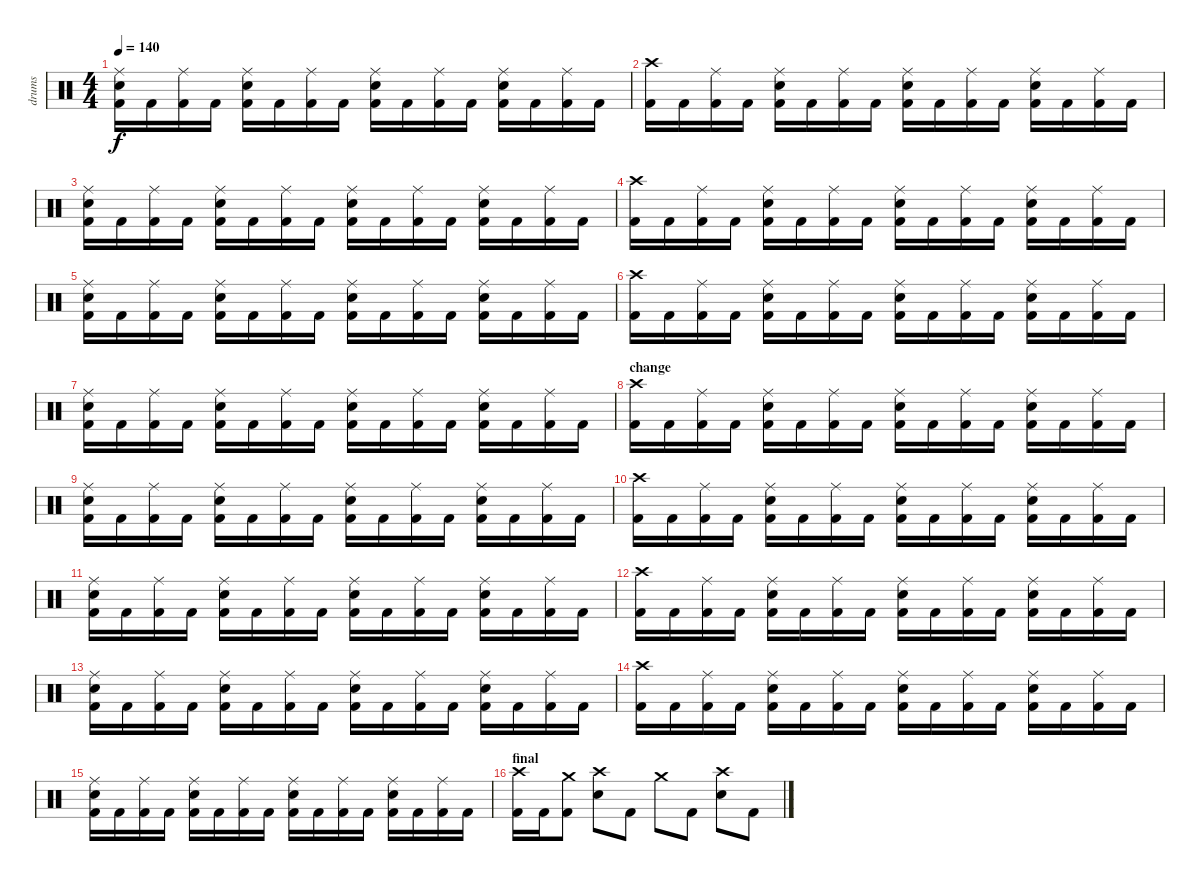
\track ("drums" "drums") {instrument percussion}
\staff {score}
\articulation defaults
\ts (4 4)
\tempo 140
\clef neutral
\ks c
("Ride (middle)" "Electric Snare (hit)" "Kick (hit) 2").16{dy f} "Kick (hit) 2".16 ("Ride (middle)" "Kick (hit) 2").16 "Kick (hit) 2".16 ("Ride (middle)" "Electric Snare (hit)" "Kick (hit) 2").16 "Kick (hit) 2".16 ("Ride (middle)" "Kick (hit) 2").16 "Kick (hit) 2".16 ("Ride (middle)" "Electric Snare (hit)" "Kick (hit) 2").16 "Kick (hit) 2".16 ("Ride (middle)" "Kick (hit) 2").16 "Kick (hit) 2".16 ("Ride (middle)" "Electric Snare (hit)" "Kick (hit) 2").16 "Kick (hit) 2".16 ("Ride (middle)" "Kick (hit) 2").16 "Kick (hit) 2".16 |
("Crash high (hit)" "Kick (hit) 2").16 "Kick (hit) 2".16 ("Ride (middle)" "Kick (hit) 2").16 "Kick (hit) 2".16 ("Ride (middle)" "Electric Snare (hit)" "Kick (hit) 2").16 "Kick (hit) 2".16 ("Ride (middle)" "Kick (hit) 2").16 "Kick (hit) 2".16 ("Ride (middle)" "Electric Snare (hit)" "Kick (hit) 2").16 "Kick (hit) 2".16 ("Ride (middle)" "Kick (hit) 2").16 "Kick (hit) 2".16 ("Ride (middle)" "Electric Snare (hit)" "Kick (hit) 2").16 "Kick (hit) 2".16 ("Ride (middle)" "Kick (hit) 2").16 "Kick (hit) 2".16 |
("Ride (middle)" "Electric Snare (hit)" "Kick (hit) 2").16 "Kick (hit) 2".16 ("Ride (middle)" "Kick (hit) 2").16 "Kick (hit) 2".16 ("Ride (middle)" "Electric Snare (hit)" "Kick (hit) 2").16 "Kick (hit) 2".16 ("Ride (middle)" "Kick (hit) 2").16 "Kick (hit) 2".16 ("Ride (middle)" "Electric Snare (hit)" "Kick (hit) 2").16 "Kick (hit) 2".16 ("Ride (middle)" "Kick (hit) 2").16 "Kick (hit) 2".16 ("Ride (middle)" "Electric Snare (hit)" "Kick (hit) 2").16 "Kick (hit) 2".16 ("Ride (middle)" "Kick (hit) 2").16 "Kick (hit) 2".16 |
("Crash high (hit)" "Kick (hit) 2").16 "Kick (hit) 2".16 ("Ride (middle)" "Kick (hit) 2").16 "Kick (hit) 2".16 ("Ride (middle)" "Electric Snare (hit)" "Kick (hit) 2").16 "Kick (hit) 2".16 ("Ride (middle)" "Kick (hit) 2").16 "Kick (hit) 2".16 ("Ride (middle)" "Electric Snare (hit)" "Kick (hit) 2").16 "Kick (hit) 2".16 ("Ride (middle)" "Kick (hit) 2").16 "Kick (hit) 2".16 ("Ride (middle)" "Electric Snare (hit)" "Kick (hit) 2").16 "Kick (hit) 2".16 ("Ride (middle)" "Kick (hit) 2").16 "Kick (hit) 2".16 |
("Ride (middle)" "Electric Snare (hit)" "Kick (hit) 2").16 "Kick (hit) 2".16 ("Ride (middle)" "Kick (hit) 2").16 "Kick (hit) 2".16 ("Ride (middle)" "Electric Snare (hit)" "Kick (hit) 2").16 "Kick (hit) 2".16 ("Ride (middle)" "Kick (hit) 2").16 "Kick (hit) 2".16 ("Ride (middle)" "Electric Snare (hit)" "Kick (hit) 2").16 "Kick (hit) 2".16 ("Ride (middle)" "Kick (hit) 2").16 "Kick (hit) 2".16 ("Ride (middle)" "Electric Snare (hit)" "Kick (hit) 2").16 "Kick (hit) 2".16 ("Ride (middle)" "Kick (hit) 2").16 "Kick (hit) 2".16 |
("Crash high (hit)" "Kick (hit) 2").16 "Kick (hit) 2".16 ("Ride (middle)" "Kick (hit) 2").16 "Kick (hit) 2".16 ("Ride (middle)" "Electric Snare (hit)" "Kick (hit) 2").16 "Kick (hit) 2".16 ("Ride (middle)" "Kick (hit) 2").16 "Kick (hit) 2".16 ("Ride (middle)" "Electric Snare (hit)" "Kick (hit) 2").16 "Kick (hit) 2".16 ("Ride (middle)" "Kick (hit) 2").16 "Kick (hit) 2".16 ("Ride (middle)" "Electric Snare (hit)" "Kick (hit) 2").16 "Kick (hit) 2".16 ("Ride (middle)" "Kick (hit) 2").16 "Kick (hit) 2".16 |
("Ride (middle)" "Electric Snare (hit)" "Kick (hit) 2").16 "Kick (hit) 2".16 ("Ride (middle)" "Kick (hit) 2").16 "Kick (hit) 2".16 ("Ride (middle)" "Electric Snare (hit)" "Kick (hit) 2").16 "Kick (hit) 2".16 ("Ride (middle)" "Kick (hit) 2").16 "Kick (hit) 2".16 ("Ride (middle)" "Electric Snare (hit)" "Kick (hit) 2").16 "Kick (hit) 2".16 ("Ride (middle)" "Kick (hit) 2").16 "Kick (hit) 2".16 ("Ride (middle)" "Electric Snare (hit)" "Kick (hit) 2").16 "Kick (hit) 2".16 ("Ride (middle)" "Kick (hit) 2").16 "Kick (hit) 2".16 |
\section ("" "change")
("Crash high (hit)" "Kick (hit) 2").16 "Kick (hit) 2".16 ("Ride (middle)" "Kick (hit) 2").16 "Kick (hit) 2".16 ("Ride (middle)" "Electric Snare (hit)" "Kick (hit) 2").16 "Kick (hit) 2".16 ("Ride (middle)" "Kick (hit) 2").16 "Kick (hit) 2".16 ("Ride (middle)" "Electric Snare (hit)" "Kick (hit) 2").16 "Kick (hit) 2".16 ("Ride (middle)" "Kick (hit) 2").16 "Kick (hit) 2".16 ("Ride (middle)" "Electric Snare (hit)" "Kick (hit) 2").16 "Kick (hit) 2".16 ("Ride (middle)" "Kick (hit) 2").16 "Kick (hit) 2".16 |
("Ride (middle)" "Electric Snare (hit)" "Kick (hit) 2").16 "Kick (hit) 2".16 ("Ride (middle)" "Kick (hit) 2").16 "Kick (hit) 2".16 ("Ride (middle)" "Electric Snare (hit)" "Kick (hit) 2").16 "Kick (hit) 2".16 ("Ride (middle)" "Kick (hit) 2").16 "Kick (hit) 2".16 ("Ride (middle)" "Electric Snare (hit)" "Kick (hit) 2").16 "Kick (hit) 2".16 ("Ride (middle)" "Kick (hit) 2").16 "Kick (hit) 2".16 ("Ride (middle)" "Electric Snare (hit)" "Kick (hit) 2").16 "Kick (hit) 2".16 ("Ride (middle)" "Kick (hit) 2").16 "Kick (hit) 2".16 |
("Crash high (hit)" "Kick (hit) 2").16 "Kick (hit) 2".16 ("Ride (middle)" "Kick (hit) 2").16 "Kick (hit) 2".16 ("Ride (middle)" "Electric Snare (hit)" "Kick (hit) 2").16 "Kick (hit) 2".16 ("Ride (middle)" "Kick (hit) 2").16 "Kick (hit) 2".16 ("Ride (middle)" "Electric Snare (hit)" "Kick (hit) 2").16 "Kick (hit) 2".16 ("Ride (middle)" "Kick (hit) 2").16 "Kick (hit) 2".16 ("Ride (middle)" "Electric Snare (hit)" "Kick (hit) 2").16 "Kick (hit) 2".16 ("Ride (middle)" "Kick (hit) 2").16 "Kick (hit) 2".16 |
("Ride (middle)" "Electric Snare (hit)" "Kick (hit) 2").16 "Kick (hit) 2".16 ("Ride (middle)" "Kick (hit) 2").16 "Kick (hit) 2".16 ("Ride (middle)" "Electric Snare (hit)" "Kick (hit) 2").16 "Kick (hit) 2".16 ("Ride (middle)" "Kick (hit) 2").16 "Kick (hit) 2".16 ("Ride (middle)" "Electric Snare (hit)" "Kick (hit) 2").16 "Kick (hit) 2".16 ("Ride (middle)" "Kick (hit) 2").16 "Kick (hit) 2".16 ("Ride (middle)" "Electric Snare (hit)" "Kick (hit) 2").16 "Kick (hit) 2".16 ("Ride (middle)" "Kick (hit) 2").16 "Kick (hit) 2".16 |
("Crash high (hit)" "Kick (hit) 2").16 "Kick (hit) 2".16 ("Ride (middle)" "Kick (hit) 2").16 "Kick (hit) 2".16 ("Ride (middle)" "Electric Snare (hit)" "Kick (hit) 2").16 "Kick (hit) 2".16 ("Ride (middle)" "Kick (hit) 2").16 "Kick (hit) 2".16 ("Ride (middle)" "Electric Snare (hit)" "Kick (hit) 2").16 "Kick (hit) 2".16 ("Ride (middle)" "Kick (hit) 2").16 "Kick (hit) 2".16 ("Ride (middle)" "Electric Snare (hit)" "Kick (hit) 2").16 "Kick (hit) 2".16 ("Ride (middle)" "Kick (hit) 2").16 "Kick (hit) 2".16 |
("Ride (middle)" "Electric Snare (hit)" "Kick (hit) 2").16 "Kick (hit) 2".16 ("Ride (middle)" "Kick (hit) 2").16 "Kick (hit) 2".16 ("Ride (middle)" "Electric Snare (hit)" "Kick (hit) 2").16 "Kick (hit) 2".16 ("Ride (middle)" "Kick (hit) 2").16 "Kick (hit) 2".16 ("Ride (middle)" "Electric Snare (hit)" "Kick (hit) 2").16 "Kick (hit) 2".16 ("Ride (middle)" "Kick (hit) 2").16 "Kick (hit) 2".16 ("Ride (middle)" "Electric Snare (hit)" "Kick (hit) 2").16 "Kick (hit) 2".16 ("Ride (middle)" "Kick (hit) 2").16 "Kick (hit) 2".16 |
("Crash high (hit)" "Kick (hit) 2").16 "Kick (hit) 2".16 ("Ride (middle)" "Kick (hit) 2").16 "Kick (hit) 2".16 ("Ride (middle)" "Electric Snare (hit)" "Kick (hit) 2").16 "Kick (hit) 2".16 ("Ride (middle)" "Kick (hit) 2").16 "Kick (hit) 2".16 ("Ride (middle)" "Electric Snare (hit)" "Kick (hit) 2").16 "Kick (hit) 2".16 ("Ride (middle)" "Kick (hit) 2").16 "Kick (hit) 2".16 ("Ride (middle)" "Electric Snare (hit)" "Kick (hit) 2").16 "Kick (hit) 2".16 ("Ride (middle)" "Kick (hit) 2").16 "Kick (hit) 2".16 |
("Ride (middle)" "Electric Snare (hit)" "Kick (hit) 2").16 "Kick (hit) 2".16 ("Ride (middle)" "Kick (hit) 2").16 "Kick (hit) 2".16 ("Ride (middle)" "Electric Snare (hit)" "Kick (hit) 2").16 "Kick (hit) 2".16 ("Ride (middle)" "Kick (hit) 2").16 "Kick (hit) 2".16 ("Ride (middle)" "Electric Snare (hit)" "Kick (hit) 2").16 "Kick (hit) 2".16 ("Ride (middle)" "Kick (hit) 2").16 "Kick (hit) 2".16 ("Ride (middle)" "Electric Snare (hit)" "Kick (hit) 2").16 "Kick (hit) 2".16 ("Ride (middle)" "Kick (hit) 2").16 "Kick (hit) 2".16 |
\section ("" "final")
("Crash high (hit)" "Kick (hit) 2").16 "Kick (hit) 2".16 ("Crash medium (hit)" "Kick (hit) 2").8 ("Crash high (hit)" "Electric Snare (hit)").8 "Kick (hit) 2".8 "Crash medium (hit)".8 "Kick (hit) 2".8 ("Crash high (hit)" "Electric Snare (hit)").8 "Kick (hit) 2".8
